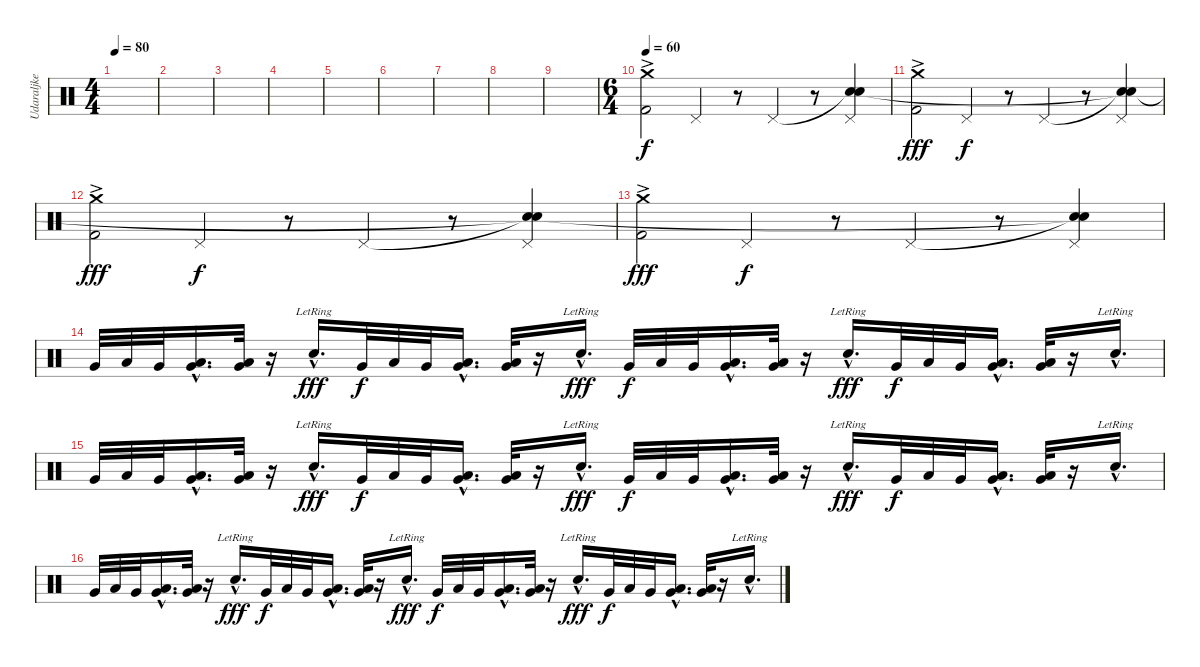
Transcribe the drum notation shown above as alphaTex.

\track ("Udaraljke" "Udaraljke") {instrument percussion}
\staff {score}
\articulation defaults
\ts (4 4)
\tempo 80
\clef neutral
\ks c
|
|
|
|
|
|
|
|
|
\ts (6 4)
\tempo 59
\tempo 60
("Kick (hit) 2"{ac} "Crash medium (hit)"{ac}).2 "Pedal Hi-Hat (hit)".4{dy f} r.8 "Pedal Hi-Hat (hit)".4 r.8 ("Snare (hit)"{t} "Pedal Hi-Hat (hit)" "Snare (hit)").4 |
("Kick (hit) 2"{ac} "Crash medium (hit)"{ac}).2{dy fff} "Pedal Hi-Hat (hit)".4{dy f} r.8 "Pedal Hi-Hat (hit)".4 r.8 ("Snare (hit)"{t} "Pedal Hi-Hat (hit)" "Snare (hit)"{t}).4 |
("Kick (hit) 2"{ac} "Crash medium (hit)"{ac}).2{dy fff} "Pedal Hi-Hat (hit)".4{dy f} r.8 "Pedal Hi-Hat (hit)".4 r.8 ("Snare (hit)"{t} "Pedal Hi-Hat (hit)" "Snare (hit)"{t}).4 |
("Kick (hit) 2"{ac} "Crash medium (hit)"{ac}).2{dy fff} "Pedal Hi-Hat (hit)".4{dy f} r.8 "Pedal Hi-Hat (hit)".4 r.8 ("Snare (hit)"{t} "Pedal Hi-Hat (hit)" "Snare (hit)"{t}).4 |
"Very Low Tom (hit)".32 "Low Tom (hit)".32 "Very Low Tom (hit)".32 ("Very Low Tom (hit)"{hac} "Low Floor Tom (hit)"{hac}).16{d} ("Very Low Tom (hit)" "Low Floor Tom (hit)").32 r.16 "Snare (hit) 2"{hac lr}.16{d dy fff} "Very Low Tom (hit)".32{dy f} "Low Tom (hit)".32 "Very Low Tom (hit)".32 ("Low Floor Tom (hit)"{hac} "Very Low Tom (hit)"{hac}).16{d} ("Very Low Tom (hit)" "Low Floor Tom (hit)").32 r.16 "Snare (hit) 2"{hac lr}.16{d dy fff} "Very Low Tom (hit)".32{dy f} "Low Tom (hit)".32 "Very Low Tom (hit)".32 ("Low Floor Tom (hit)"{hac} "Very Low Tom (hit)"{hac}).16{d} ("Very Low Tom (hit)" "Low Floor Tom (hit)").32 r.16 "Snare (hit) 2"{hac lr}.16{d dy fff} "Very Low Tom (hit)".32{dy f} "Low Tom (hit)".32 "Very Low Tom (hit)".32 ("Low Floor Tom (hit)"{hac} "Very Low Tom (hit)"{hac}).16{d} ("Very Low Tom (hit)" "Low Floor Tom (hit)").32 r.16 "Snare (hit) 2"{hac lr}.16{d} |
"Very Low Tom (hit)".32 "Low Tom (hit)".32 "Very Low Tom (hit)".32 ("Very Low Tom (hit)"{hac} "Low Floor Tom (hit)"{hac}).16{d} ("Very Low Tom (hit)" "Low Floor Tom (hit)").32 r.16 "Snare (hit) 2"{hac lr}.16{d dy fff} "Very Low Tom (hit)".32{dy f} "Low Tom (hit)".32 "Very Low Tom (hit)".32 ("Low Floor Tom (hit)"{hac} "Very Low Tom (hit)"{hac}).16{d} ("Very Low Tom (hit)" "Low Floor Tom (hit)").32 r.16 "Snare (hit) 2"{hac lr}.16{d dy fff} "Very Low Tom (hit)".32{dy f} "Low Tom (hit)".32 "Very Low Tom (hit)".32 ("Low Floor Tom (hit)"{hac} "Very Low Tom (hit)"{hac}).16{d} ("Very Low Tom (hit)" "Low Floor Tom (hit)").32 r.16 "Snare (hit) 2"{hac lr}.16{d dy fff} "Very Low Tom (hit)".32{dy f} "Low Tom (hit)".32 "Very Low Tom (hit)".32 ("Low Floor Tom (hit)"{hac} "Very Low Tom (hit)"{hac}).16{d} ("Very Low Tom (hit)" "Low Floor Tom (hit)").32 r.16 "Snare (hit) 2"{hac lr}.16{d} |
"Very Low Tom (hit)".32 "Low Tom (hit)".32 "Very Low Tom (hit)".32 ("Very Low Tom (hit)"{hac} "Low Floor Tom (hit)"{hac}).16{d} ("Very Low Tom (hit)" "Low Floor Tom (hit)").32 r.16 "Snare (hit) 2"{hac lr}.16{d dy fff} "Very Low Tom (hit)".32{dy f} "Low Tom (hit)".32 "Very Low Tom (hit)".32 ("Low Floor Tom (hit)"{hac} "Very Low Tom (hit)"{hac}).16{d} ("Very Low Tom (hit)" "Low Floor Tom (hit)").32 r.16 "Snare (hit) 2"{hac lr}.16{d dy fff} "Very Low Tom (hit)".32{dy f} "Low Tom (hit)".32 "Very Low Tom (hit)".32 ("Low Floor Tom (hit)"{hac} "Very Low Tom (hit)"{hac}).16{d} ("Very Low Tom (hit)" "Low Floor Tom (hit)").32 r.16 "Snare (hit) 2"{hac lr}.16{d dy fff} "Very Low Tom (hit)".32{dy f} "Low Tom (hit)".32 "Very Low Tom (hit)".32 ("Low Floor Tom (hit)"{hac} "Very Low Tom (hit)"{hac}).16{d} ("Very Low Tom (hit)" "Low Floor Tom (hit)").32 r.16 "Snare (hit) 2"{hac lr}.16{d}
